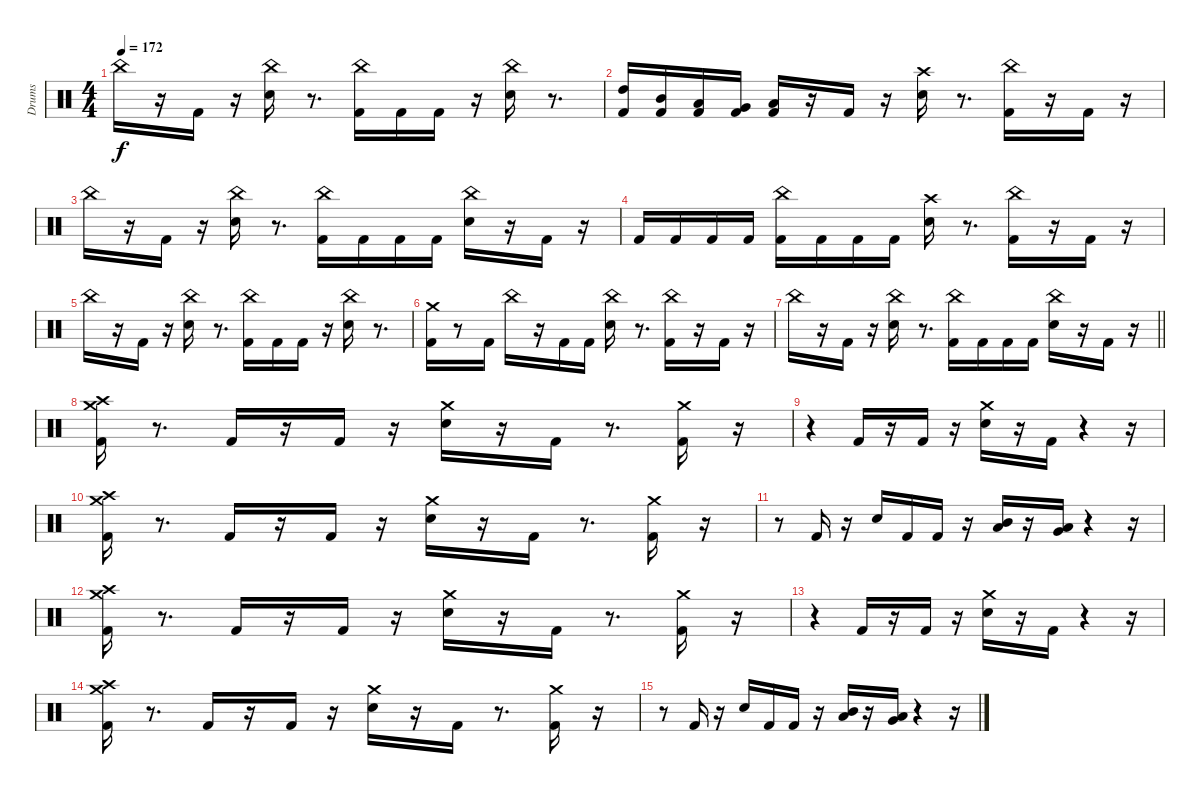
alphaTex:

\track ("Drums" "Drums") {instrument percussion}
\staff {score}
\articulation defaults
\ts (4 4)
\tempo 172
\clef neutral
\ks c "China (hit)".16{dy f}
r.16 "Kick (hit) 2".16 r.16 ("Snare (hit) 2" "China (hit)").16 r.8{d} ("Kick (hit) 2" "China (hit)").16 "Kick (hit) 2".16 "Kick (hit) 2".16 r.16 ("Snare (hit) 2" "China (hit)").16 r.8{d} |
("Kick (hit) 2" "High Tom (hit)").16 ("Kick (hit) 2" "Mid Tom (hit)").16 ("Kick (hit) 2" "Low Tom (hit)").16 ("Kick (hit) 2" "Very Low Tom (hit)").16 ("Kick (hit) 2" "Low Floor Tom (hit)").16 r.16 "Kick (hit) 2".16 r.16 ("Snare (hit) 2" "Crash high (hit)").16 r.8{d} ("Kick (hit) 2" "China (hit)").16 r.16 "Kick (hit) 2".16 r.16 |
"China (hit)".16 r.16 "Kick (hit) 2".16 r.16 ("Snare (hit) 2" "China (hit)").16 r.8{d} ("Kick (hit) 2" "China (hit)").16 "Kick (hit) 2".16 "Kick (hit) 2".16 "Kick (hit) 2".16 ("Snare (hit) 2" "China (hit)").16 r.16 "Kick (hit) 2".16 r.16 |
"Kick (hit) 2".16 "Kick (hit) 2".16 "Kick (hit) 2".16 "Kick (hit) 2".16 ("Kick (hit) 2" "China (hit)").16 "Kick (hit) 2".16 "Kick (hit) 2".16 "Kick (hit) 2".16 ("Snare (hit) 2" "Crash high (hit)").16 r.8{d} ("Kick (hit) 2" "China (hit)").16 r.16 "Kick (hit) 2".16 r.16 |
"China (hit)".16 r.16 "Kick (hit) 2".16 r.16 ("Snare (hit) 2" "China (hit)").16 r.8{d} ("Kick (hit) 2" "China (hit)").16 "Kick (hit) 2".16 "Kick (hit) 2".16 r.16 ("Snare (hit) 2" "China (hit)").16 r.8{d} |
("Kick (hit) 2" "Crash medium (hit)").16 r.8 "Kick (hit) 2".16 "China (hit)".16 r.16 "Kick (hit) 2".16 "Kick (hit) 2".16 ("Snare (hit) 2" "China (hit)").16 r.8{d} ("Kick (hit) 2" "China (hit)").16 r.16 "Kick (hit) 2".16 r.16 |
\barLineRight lightlight "China (hit)".16
r.16 "Kick (hit) 2".16 r.16 ("Snare (hit) 2" "China (hit)").16 r.8{d} ("Kick (hit) 2" "China (hit)").16 "Kick (hit) 2".16 "Kick (hit) 2".16 "Kick (hit) 2".16 ("Snare (hit) 2" "China (hit)").16 r.16 "Kick (hit) 2".16 r.16 |
\section ("" " ")
("Kick (hit) 2" "Crash medium (hit)" "Crash high (hit)").16 r.8{d} "Kick (hit) 2".16 r.16 "Kick (hit) 2".16 r.16 ("Snare (hit) 2" "Crash medium (hit)").16 r.16 "Kick (hit) 2".16 r.8{d} ("Kick (hit) 2" "Crash medium (hit)").16 r.16 |
r.4 "Kick (hit) 2".16 r.16 "Kick (hit) 2".16 r.16 ("Snare (hit) 2" "Crash medium (hit)").16 r.16 "Kick (hit) 2".16 r.4 r.16 |
("Kick (hit) 2" "Crash medium (hit)" "Crash high (hit)").16 r.8{d} "Kick (hit) 2".16 r.16 "Kick (hit) 2".16 r.16 ("Snare (hit) 2" "Crash medium (hit)").16 r.16 "Kick (hit) 2".16 r.8{d} ("Kick (hit) 2" "Crash medium (hit)").16 r.16 |
r.8 "Kick (hit) 2".16 r.16 "Snare (hit) 2".16 "Kick (hit) 2".16 "Kick (hit) 2".16 r.16 ("Low Tom (hit)" "Mid Tom (hit)").16 r.16 ("Very Low Tom (hit)" "Low Tom (hit)").16 r.4 r.16 |
("Kick (hit) 2" "Crash medium (hit)" "Crash high (hit)").16 r.8{d} "Kick (hit) 2".16 r.16 "Kick (hit) 2".16 r.16 ("Snare (hit) 2" "Crash medium (hit)").16 r.16 "Kick (hit) 2".16 r.8{d} ("Kick (hit) 2" "Crash medium (hit)").16 r.16 |
r.4 "Kick (hit) 2".16 r.16 "Kick (hit) 2".16 r.16 ("Snare (hit) 2" "Crash medium (hit)").16 r.16 "Kick (hit) 2".16 r.4 r.16 |
("Kick (hit) 2" "Crash medium (hit)" "Crash high (hit)").16 r.8{d} "Kick (hit) 2".16 r.16 "Kick (hit) 2".16 r.16 ("Snare (hit) 2" "Crash medium (hit)").16 r.16 "Kick (hit) 2".16 r.8{d} ("Kick (hit) 2" "Crash medium (hit)").16 r.16 |
r.8 "Kick (hit) 2".16 r.16 "Snare (hit) 2".16 "Kick (hit) 2".16 "Kick (hit) 2".16 r.16 ("Low Tom (hit)" "Mid Tom (hit)").16 r.16 ("Very Low Tom (hit)" "Low Tom (hit)").16 r.4 r.16
